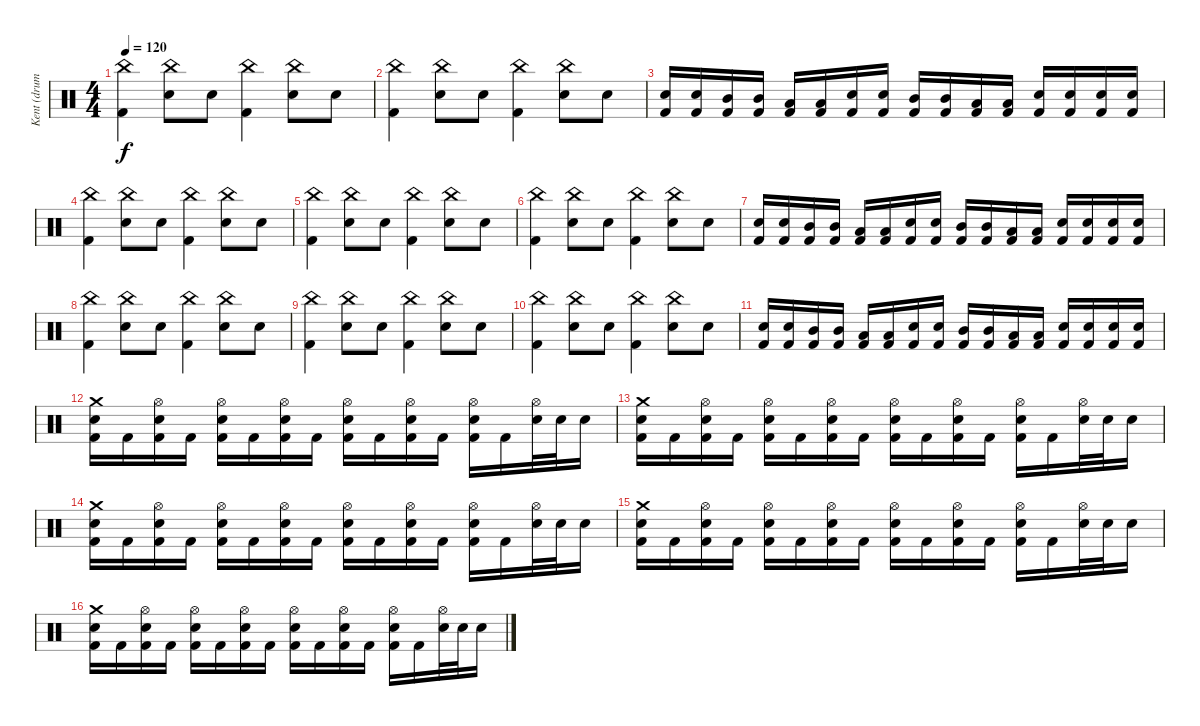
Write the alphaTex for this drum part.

\track ("Kent (drums)" "Kent (drum") {instrument percussion}
\staff {score}
\articulation defaults
\ts (4 4)
\tempo 120
\clef neutral
\ks c
("China (hit)" "Kick (hit) 2").4{dy f} ("China (hit)" "Snare (hit) 2").8 "Snare (hit) 2".8 ("China (hit)" "Kick (hit) 2").4 ("China (hit)" "Snare (hit) 2").8 "Snare (hit) 2".8 |
("China (hit)" "Kick (hit) 2").4 ("China (hit)" "Snare (hit) 2").8 "Snare (hit) 2".8 ("China (hit)" "Kick (hit) 2").4 ("China (hit)" "Snare (hit) 2").8 "Snare (hit) 2".8 |
("Snare (hit) 2" "Kick (hit) 2").16 ("Snare (hit) 2" "Kick (hit) 2").16 ("Mid Tom (hit)" "Kick (hit) 2").16 ("Mid Tom (hit)" "Kick (hit) 2").16 ("Low Tom (hit)" "Kick (hit) 2").16 ("Low Tom (hit)" "Kick (hit) 2").16 ("Snare (hit) 2" "Kick (hit) 2").16 ("Snare (hit) 2" "Kick (hit) 2").16 ("Mid Tom (hit)" "Kick (hit) 2").16 ("Mid Tom (hit)" "Kick (hit) 2").16 ("Low Tom (hit)" "Kick (hit) 2").16 ("Low Tom (hit)" "Kick (hit) 2").16 ("Snare (hit) 2" "Kick (hit) 2").16 ("Snare (hit) 2" "Kick (hit) 2").16 ("Snare (hit) 2" "Kick (hit) 2").16 ("Snare (hit) 2" "Kick (hit) 2").16 |
("China (hit)" "Kick (hit) 2").4 ("China (hit)" "Snare (hit) 2").8 "Snare (hit) 2".8 ("China (hit)" "Kick (hit) 2").4 ("China (hit)" "Snare (hit) 2").8 "Snare (hit) 2".8 |
("China (hit)" "Kick (hit) 2").4 ("China (hit)" "Snare (hit) 2").8 "Snare (hit) 2".8 ("China (hit)" "Kick (hit) 2").4 ("China (hit)" "Snare (hit) 2").8 "Snare (hit) 2".8 |
("China (hit)" "Kick (hit) 2").4 ("China (hit)" "Snare (hit) 2").8 "Snare (hit) 2".8 ("China (hit)" "Kick (hit) 2").4 ("China (hit)" "Snare (hit) 2").8 "Snare (hit) 2".8 |
("Snare (hit) 2" "Kick (hit) 2").16 ("Snare (hit) 2" "Kick (hit) 2").16 ("Mid Tom (hit)" "Kick (hit) 2").16 ("Mid Tom (hit)" "Kick (hit) 2").16 ("Low Tom (hit)" "Kick (hit) 2").16 ("Low Tom (hit)" "Kick (hit) 2").16 ("Snare (hit) 2" "Kick (hit) 2").16 ("Snare (hit) 2" "Kick (hit) 2").16 ("Mid Tom (hit)" "Kick (hit) 2").16 ("Mid Tom (hit)" "Kick (hit) 2").16 ("Low Tom (hit)" "Kick (hit) 2").16 ("Low Tom (hit)" "Kick (hit) 2").16 ("Snare (hit) 2" "Kick (hit) 2").16 ("Snare (hit) 2" "Kick (hit) 2").16 ("Snare (hit) 2" "Kick (hit) 2").16 ("Snare (hit) 2" "Kick (hit) 2").16 |
("China (hit)" "Kick (hit) 2").4 ("China (hit)" "Snare (hit) 2").8 "Snare (hit) 2".8 ("China (hit)" "Kick (hit) 2").4 ("China (hit)" "Snare (hit) 2").8 "Snare (hit) 2".8 |
("China (hit)" "Kick (hit) 2").4 ("China (hit)" "Snare (hit) 2").8 "Snare (hit) 2".8 ("China (hit)" "Kick (hit) 2").4 ("China (hit)" "Snare (hit) 2").8 "Snare (hit) 2".8 |
("China (hit)" "Kick (hit) 2").4 ("China (hit)" "Snare (hit) 2").8 "Snare (hit) 2".8 ("China (hit)" "Kick (hit) 2").4 ("China (hit)" "Snare (hit) 2").8 "Snare (hit) 2".8 |
("Snare (hit) 2" "Kick (hit) 2").16 ("Snare (hit) 2" "Kick (hit) 2").16 ("Mid Tom (hit)" "Kick (hit) 2").16 ("Mid Tom (hit)" "Kick (hit) 2").16 ("Low Tom (hit)" "Kick (hit) 2").16 ("Low Tom (hit)" "Kick (hit) 2").16 ("Snare (hit) 2" "Kick (hit) 2").16 ("Snare (hit) 2" "Kick (hit) 2").16 ("Mid Tom (hit)" "Kick (hit) 2").16 ("Mid Tom (hit)" "Kick (hit) 2").16 ("Low Tom (hit)" "Kick (hit) 2").16 ("Low Tom (hit)" "Kick (hit) 2").16 ("Snare (hit) 2" "Kick (hit) 2").16 ("Snare (hit) 2" "Kick (hit) 2").16 ("Snare (hit) 2" "Kick (hit) 2").16 ("Snare (hit) 2" "Kick (hit) 2").16 |
("Crash medium (hit)" "Snare (hit) 2" "Kick (hit) 2").16 "Kick (hit) 2".16 ("Hi-Hat (open)" "Snare (hit) 2" "Kick (hit) 2").16 "Kick (hit) 2".16 ("Hi-Hat (open)" "Snare (hit) 2" "Kick (hit) 2").16 "Kick (hit) 2".16 ("Hi-Hat (open)" "Snare (hit) 2" "Kick (hit) 2").16 "Kick (hit) 2".16 ("Hi-Hat (open)" "Snare (hit) 2" "Kick (hit) 2").16 "Kick (hit) 2".16 ("Hi-Hat (open)" "Snare (hit) 2" "Kick (hit) 2").16 "Kick (hit) 2".16 ("Hi-Hat (open)" "Snare (hit) 2" "Kick (hit) 2").16 "Kick (hit) 2".16 ("Hi-Hat (open)" "Snare (hit) 2").32 "Snare (hit) 2".32 "Snare (hit) 2".16 |
("Crash medium (hit)" "Snare (hit) 2" "Kick (hit) 2").16 "Kick (hit) 2".16 ("Hi-Hat (open)" "Snare (hit) 2" "Kick (hit) 2").16 "Kick (hit) 2".16 ("Hi-Hat (open)" "Snare (hit) 2" "Kick (hit) 2").16 "Kick (hit) 2".16 ("Hi-Hat (open)" "Snare (hit) 2" "Kick (hit) 2").16 "Kick (hit) 2".16 ("Hi-Hat (open)" "Snare (hit) 2" "Kick (hit) 2").16 "Kick (hit) 2".16 ("Hi-Hat (open)" "Snare (hit) 2" "Kick (hit) 2").16 "Kick (hit) 2".16 ("Hi-Hat (open)" "Snare (hit) 2" "Kick (hit) 2").16 "Kick (hit) 2".16 ("Hi-Hat (open)" "Snare (hit) 2").32 "Snare (hit) 2".32 "Snare (hit) 2".16 |
("Crash medium (hit)" "Snare (hit) 2" "Kick (hit) 2").16 "Kick (hit) 2".16 ("Hi-Hat (open)" "Snare (hit) 2" "Kick (hit) 2").16 "Kick (hit) 2".16 ("Hi-Hat (open)" "Snare (hit) 2" "Kick (hit) 2").16 "Kick (hit) 2".16 ("Hi-Hat (open)" "Snare (hit) 2" "Kick (hit) 2").16 "Kick (hit) 2".16 ("Hi-Hat (open)" "Snare (hit) 2" "Kick (hit) 2").16 "Kick (hit) 2".16 ("Hi-Hat (open)" "Snare (hit) 2" "Kick (hit) 2").16 "Kick (hit) 2".16 ("Hi-Hat (open)" "Snare (hit) 2" "Kick (hit) 2").16 "Kick (hit) 2".16 ("Hi-Hat (open)" "Snare (hit) 2").32 "Snare (hit) 2".32 "Snare (hit) 2".16 |
("Crash medium (hit)" "Snare (hit) 2" "Kick (hit) 2").16 "Kick (hit) 2".16 ("Hi-Hat (open)" "Snare (hit) 2" "Kick (hit) 2").16 "Kick (hit) 2".16 ("Hi-Hat (open)" "Snare (hit) 2" "Kick (hit) 2").16 "Kick (hit) 2".16 ("Hi-Hat (open)" "Snare (hit) 2" "Kick (hit) 2").16 "Kick (hit) 2".16 ("Hi-Hat (open)" "Snare (hit) 2" "Kick (hit) 2").16 "Kick (hit) 2".16 ("Hi-Hat (open)" "Snare (hit) 2" "Kick (hit) 2").16 "Kick (hit) 2".16 ("Hi-Hat (open)" "Snare (hit) 2" "Kick (hit) 2").16 "Kick (hit) 2".16 ("Hi-Hat (open)" "Snare (hit) 2").32 "Snare (hit) 2".32 "Snare (hit) 2".16 |
("Crash medium (hit)" "Snare (hit) 2" "Kick (hit) 2").16 "Kick (hit) 2".16 ("Hi-Hat (open)" "Snare (hit) 2" "Kick (hit) 2").16 "Kick (hit) 2".16 ("Hi-Hat (open)" "Snare (hit) 2" "Kick (hit) 2").16 "Kick (hit) 2".16 ("Hi-Hat (open)" "Snare (hit) 2" "Kick (hit) 2").16 "Kick (hit) 2".16 ("Hi-Hat (open)" "Snare (hit) 2" "Kick (hit) 2").16 "Kick (hit) 2".16 ("Hi-Hat (open)" "Snare (hit) 2" "Kick (hit) 2").16 "Kick (hit) 2".16 ("Hi-Hat (open)" "Snare (hit) 2" "Kick (hit) 2").16 "Kick (hit) 2".16 ("Hi-Hat (open)" "Snare (hit) 2").32 "Snare (hit) 2".32 "Snare (hit) 2".16
